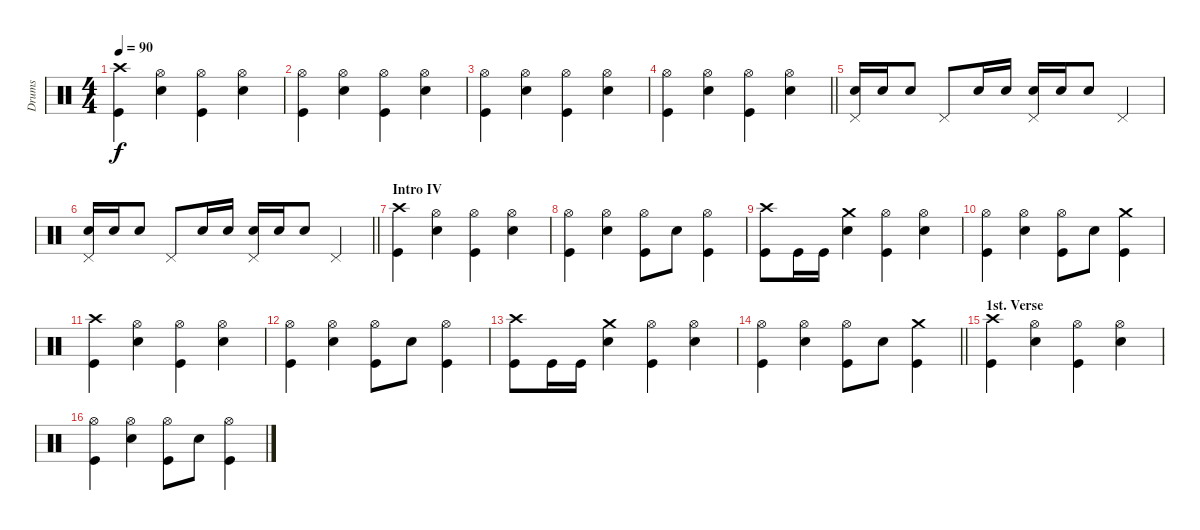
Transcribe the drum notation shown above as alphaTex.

\track ("Drums" "Drums") {instrument percussion}
\staff {score}
\articulation defaults
\ts (4 4)
\tempo 90
\clef neutral
\ks c
("Crash high (hit)" "Kick (hit)").4{dy f} ("Hi-Hat (open)" "Electric Snare (hit)").4 ("Hi-Hat (open)" "Kick (hit)").4 ("Hi-Hat (open)" "Electric Snare (hit)").4 |
("Hi-Hat (open)" "Kick (hit)").4 ("Hi-Hat (open)" "Electric Snare (hit)").4 ("Hi-Hat (open)" "Kick (hit)").4 ("Hi-Hat (open)" "Electric Snare (hit)").4 |
("Hi-Hat (open)" "Kick (hit)").4 ("Hi-Hat (open)" "Electric Snare (hit)").4 ("Hi-Hat (open)" "Kick (hit)").4 ("Hi-Hat (open)" "Electric Snare (hit)").4 |
\barLineRight lightlight
("Hi-Hat (open)" "Kick (hit)").4 ("Hi-Hat (open)" "Electric Snare (hit)").4 ("Hi-Hat (open)" "Kick (hit)").4 ("Hi-Hat (open)" "Electric Snare (hit)").4 |
("Electric Snare (hit)" "Pedal Hi-Hat (hit)").16 "Electric Snare (hit)".16 "Electric Snare (hit)".8 "Pedal Hi-Hat (hit)".8 "Electric Snare (hit)".16 "Electric Snare (hit)".16 ("Electric Snare (hit)" "Pedal Hi-Hat (hit)").16 "Electric Snare (hit)".16 "Electric Snare (hit)".8 "Pedal Hi-Hat (hit)".4 |
\barLineRight lightlight
("Electric Snare (hit)" "Pedal Hi-Hat (hit)").16 "Electric Snare (hit)".16 "Electric Snare (hit)".8 "Pedal Hi-Hat (hit)".8 "Electric Snare (hit)".16 "Electric Snare (hit)".16 ("Electric Snare (hit)" "Pedal Hi-Hat (hit)").16 "Electric Snare (hit)".16 "Electric Snare (hit)".8 "Pedal Hi-Hat (hit)".4 |
\section ("" "Intro IV")
("Crash high (hit)" "Kick (hit)").4 ("Hi-Hat (open)" "Electric Snare (hit)").4 ("Hi-Hat (open)" "Kick (hit)").4 ("Hi-Hat (open)" "Electric Snare (hit)").4 |
("Hi-Hat (open)" "Kick (hit)").4 ("Hi-Hat (open)" "Electric Snare (hit)").4 ("Hi-Hat (open)" "Kick (hit)").8 "Electric Snare (hit)".8 ("Hi-Hat (open)" "Kick (hit)").4 |
("Crash high (hit)" "Kick (hit)").8 "Kick (hit)".16 "Kick (hit)".16 ("Crash medium (hit)" "Electric Snare (hit)").4 ("Hi-Hat (open)" "Kick (hit)").4 ("Hi-Hat (open)" "Electric Snare (hit)").4 |
("Hi-Hat (open)" "Kick (hit)").4 ("Hi-Hat (open)" "Electric Snare (hit)").4 ("Hi-Hat (open)" "Kick (hit)").8 "Electric Snare (hit)".8 ("Crash medium (hit)" "Kick (hit)").4 |
("Crash high (hit)" "Kick (hit)").4 ("Hi-Hat (open)" "Electric Snare (hit)").4 ("Hi-Hat (open)" "Kick (hit)").4 ("Hi-Hat (open)" "Electric Snare (hit)").4 |
("Hi-Hat (open)" "Kick (hit)").4 ("Hi-Hat (open)" "Electric Snare (hit)").4 ("Hi-Hat (open)" "Kick (hit)").8 "Electric Snare (hit)".8 ("Hi-Hat (open)" "Kick (hit)").4 |
("Crash high (hit)" "Kick (hit)").8 "Kick (hit)".16 "Kick (hit)".16 ("Crash medium (hit)" "Electric Snare (hit)").4 ("Hi-Hat (open)" "Kick (hit)").4 ("Hi-Hat (open)" "Electric Snare (hit)").4 |
\barLineRight lightlight
("Hi-Hat (open)" "Kick (hit)").4 ("Hi-Hat (open)" "Electric Snare (hit)").4 ("Hi-Hat (open)" "Kick (hit)").8 "Electric Snare (hit)".8 ("Crash medium (hit)" "Kick (hit)").4 |
\section ("" "1st. Verse")
("Crash high (hit)" "Kick (hit)").4 ("Hi-Hat (open)" "Electric Snare (hit)").4 ("Hi-Hat (open)" "Kick (hit)").4 ("Hi-Hat (open)" "Electric Snare (hit)").4 |
("Hi-Hat (open)" "Kick (hit)").4 ("Hi-Hat (open)" "Electric Snare (hit)").4 ("Hi-Hat (open)" "Kick (hit)").8 "Electric Snare (hit)".8 ("Hi-Hat (open)" "Kick (hit)").4
